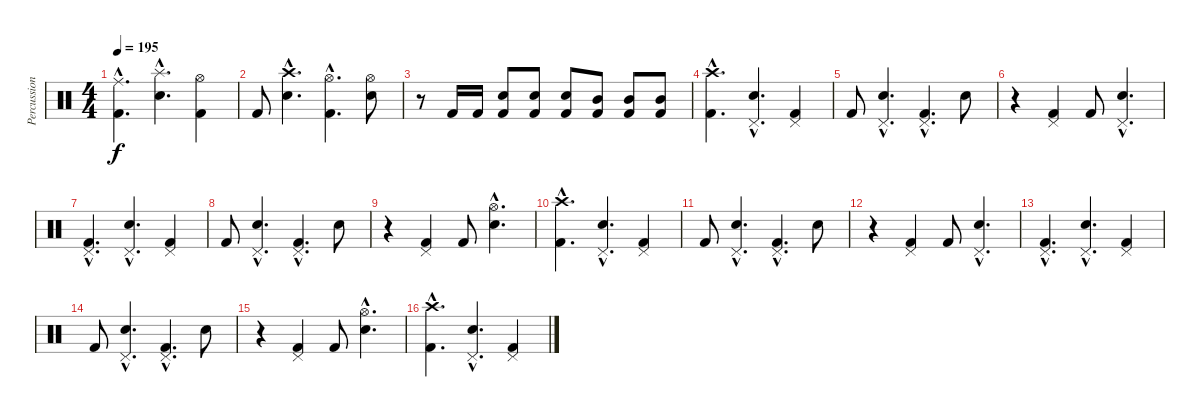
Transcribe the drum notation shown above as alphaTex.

\track ("Percussion" "Percussion") {instrument percussion}
\staff {score}
\articulation defaults
\ts (4 4)
\tempo 195
\clef neutral
\ks c
("Ride (middle)"{hac} "Kick (hit) 2"{hac}).4{d dy f} ("Splash (hit)"{hac} "Snare (hit) 2"{hac}).4{d} ("Hi-Hat (open)" "Kick (hit) 2").4 |
"Kick (hit) 2".8 ("Crash high (hit)"{hac} "Snare (hit) 2"{hac}).4{d} ("Hi-Hat (open)"{hac} "Kick (hit) 2"{hac}).4{d} ("Hi-Hat (open)" "Snare (hit) 2").8 |
r.8 "Kick (hit) 2".16 "Kick (hit) 2".16 ("Snare (hit) 2" "Kick (hit) 2").8 ("Snare (hit) 2" "Kick (hit) 2").8 ("Snare (hit) 2" "Kick (hit) 2").8 ("Mid Tom (hit)" "Kick (hit) 2").8 ("Mid Tom (hit)" "Kick (hit) 2").8 ("Mid Tom (hit)" "Kick (hit) 2").8 |
("Crash high (hit)"{hac} "Kick (hit) 2"{hac}).4{d} ("Pedal Hi-Hat (hit)"{hac} "Snare (hit) 2"{hac}).4{d} ("Pedal Hi-Hat (hit)" "Kick (hit) 2").4 |
"Kick (hit) 2".8 ("Pedal Hi-Hat (hit)"{hac} "Snare (hit) 2"{hac}).4{d} ("Pedal Hi-Hat (hit)"{hac} "Kick (hit) 2"{hac}).4{d} "Snare (hit) 2".8 |
r.4 ("Pedal Hi-Hat (hit)" "Kick (hit) 2").4 "Kick (hit) 2".8 ("Pedal Hi-Hat (hit)"{hac} "Snare (hit) 2"{hac}).4{d} |
("Pedal Hi-Hat (hit)"{hac} "Kick (hit) 2"{hac}).4{d} ("Pedal Hi-Hat (hit)"{hac} "Snare (hit) 2"{hac}).4{d} ("Pedal Hi-Hat (hit)" "Kick (hit) 2").4 |
"Kick (hit) 2".8 ("Pedal Hi-Hat (hit)"{hac} "Snare (hit) 2"{hac}).4{d} ("Pedal Hi-Hat (hit)"{hac} "Kick (hit) 2"{hac}).4{d} "Snare (hit) 2".8 |
r.4 ("Pedal Hi-Hat (hit)" "Kick (hit) 2").4 "Kick (hit) 2".8 ("Hi-Hat (open)"{hac} "Snare (hit) 2"{hac}).4{d} |
("Crash high (hit)"{hac} "Kick (hit) 2"{hac}).4{d} ("Pedal Hi-Hat (hit)"{hac} "Snare (hit) 2"{hac}).4{d} ("Pedal Hi-Hat (hit)" "Kick (hit) 2").4 |
"Kick (hit) 2".8 ("Pedal Hi-Hat (hit)"{hac} "Snare (hit) 2"{hac}).4{d} ("Pedal Hi-Hat (hit)"{hac} "Kick (hit) 2"{hac}).4{d} "Snare (hit) 2".8 |
r.4 ("Pedal Hi-Hat (hit)" "Kick (hit) 2").4 "Kick (hit) 2".8 ("Pedal Hi-Hat (hit)"{hac} "Snare (hit) 2"{hac}).4{d} |
("Pedal Hi-Hat (hit)"{hac} "Kick (hit) 2"{hac}).4{d} ("Pedal Hi-Hat (hit)"{hac} "Snare (hit) 2"{hac}).4{d} ("Pedal Hi-Hat (hit)" "Kick (hit) 2").4 |
"Kick (hit) 2".8 ("Pedal Hi-Hat (hit)"{hac} "Snare (hit) 2"{hac}).4{d} ("Pedal Hi-Hat (hit)"{hac} "Kick (hit) 2"{hac}).4{d} "Snare (hit) 2".8 |
r.4 ("Pedal Hi-Hat (hit)" "Kick (hit) 2").4 "Kick (hit) 2".8 ("Hi-Hat (open)"{hac} "Snare (hit) 2"{hac}).4{d} |
("Crash high (hit)"{hac} "Kick (hit) 2"{hac}).4{d} ("Pedal Hi-Hat (hit)"{hac} "Snare (hit) 2"{hac}).4{d} ("Pedal Hi-Hat (hit)" "Kick (hit) 2").4
